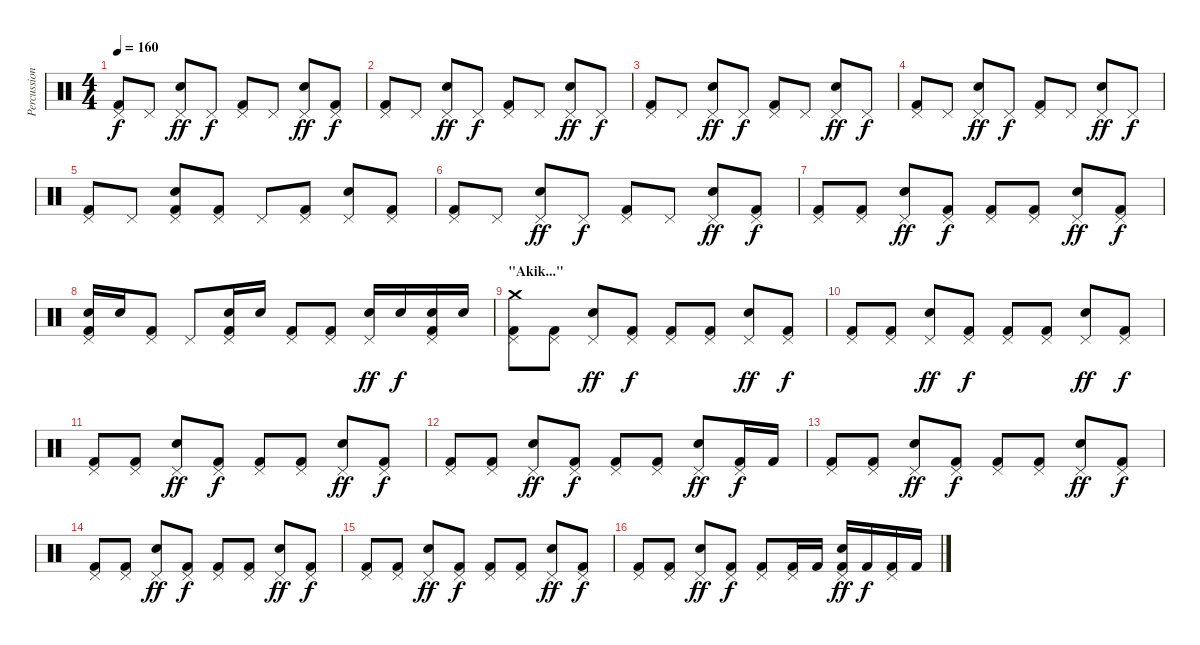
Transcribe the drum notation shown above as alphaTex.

\track ("Percussion" "Percussion") {instrument percussion}
\staff {score}
\articulation defaults
\ts (4 4)
\tempo 160
\clef neutral
\ks c
("Pedal Hi-Hat (hit)" "Kick (hit) 2").8{dy f} "Pedal Hi-Hat (hit)".8 ("Pedal Hi-Hat (hit)" "Electric Snare (hit)").8{dy ff} "Pedal Hi-Hat (hit)".8{dy f} ("Pedal Hi-Hat (hit)" "Kick (hit) 2").8 "Pedal Hi-Hat (hit)".8 ("Pedal Hi-Hat (hit)" "Electric Snare (hit)").8{dy ff} ("Pedal Hi-Hat (hit)" "Kick (hit) 2").8{dy f} |
("Pedal Hi-Hat (hit)" "Kick (hit) 2").8 "Pedal Hi-Hat (hit)".8 ("Pedal Hi-Hat (hit)" "Electric Snare (hit)").8{dy ff} "Pedal Hi-Hat (hit)".8{dy f} ("Pedal Hi-Hat (hit)" "Kick (hit) 2").8 "Pedal Hi-Hat (hit)".8 ("Pedal Hi-Hat (hit)" "Electric Snare (hit)").8{dy ff} "Pedal Hi-Hat (hit)".8{dy f} |
("Pedal Hi-Hat (hit)" "Kick (hit) 2").8 "Pedal Hi-Hat (hit)".8 ("Pedal Hi-Hat (hit)" "Electric Snare (hit)").8{dy ff} "Pedal Hi-Hat (hit)".8{dy f} ("Pedal Hi-Hat (hit)" "Kick (hit) 2").8 "Pedal Hi-Hat (hit)".8 ("Pedal Hi-Hat (hit)" "Electric Snare (hit)").8{dy ff} "Pedal Hi-Hat (hit)".8{dy f} |
("Pedal Hi-Hat (hit)" "Kick (hit) 2").8 "Pedal Hi-Hat (hit)".8 ("Pedal Hi-Hat (hit)" "Electric Snare (hit)").8{dy ff} "Pedal Hi-Hat (hit)".8{dy f} ("Pedal Hi-Hat (hit)" "Kick (hit) 2").8 "Pedal Hi-Hat (hit)".8 ("Pedal Hi-Hat (hit)" "Electric Snare (hit)").8{dy ff} "Pedal Hi-Hat (hit)".8{dy f} |
("Pedal Hi-Hat (hit)" "Kick (hit) 2").8 "Pedal Hi-Hat (hit)".8 ("Pedal Hi-Hat (hit)" "Kick (hit) 2" "Electric Snare (hit)").8 ("Pedal Hi-Hat (hit)" "Kick (hit) 2").8 "Pedal Hi-Hat (hit)".8 ("Pedal Hi-Hat (hit)" "Kick (hit) 2").8 ("Pedal Hi-Hat (hit)" "Electric Snare (hit)").8 ("Pedal Hi-Hat (hit)" "Kick (hit) 2").8 |
("Pedal Hi-Hat (hit)" "Kick (hit) 2").8 "Pedal Hi-Hat (hit)".8 ("Pedal Hi-Hat (hit)" "Electric Snare (hit)").8{dy ff} "Pedal Hi-Hat (hit)".8{dy f} ("Pedal Hi-Hat (hit)" "Kick (hit) 2").8 "Pedal Hi-Hat (hit)".8 ("Pedal Hi-Hat (hit)" "Electric Snare (hit)").8{dy ff} ("Pedal Hi-Hat (hit)" "Kick (hit) 2").8{dy f} |
("Pedal Hi-Hat (hit)" "Kick (hit) 2").8 ("Pedal Hi-Hat (hit)" "Kick (hit) 2").8 ("Pedal Hi-Hat (hit)" "Electric Snare (hit)").8{dy ff} ("Pedal Hi-Hat (hit)" "Kick (hit) 2").8{dy f} ("Pedal Hi-Hat (hit)" "Kick (hit) 2").8 ("Pedal Hi-Hat (hit)" "Kick (hit) 2").8 ("Pedal Hi-Hat (hit)" "Electric Snare (hit)").8{dy ff} ("Pedal Hi-Hat (hit)" "Kick (hit) 2").8{dy f} |
("Pedal Hi-Hat (hit)" "Kick (hit) 2" "Electric Snare (hit)").16 "Electric Snare (hit)".16 ("Pedal Hi-Hat (hit)" "Kick (hit) 2").8 "Pedal Hi-Hat (hit)".8 ("Pedal Hi-Hat (hit)" "Kick (hit) 2" "Electric Snare (hit)").16 "Electric Snare (hit)".16 ("Pedal Hi-Hat (hit)" "Kick (hit) 2").8 ("Pedal Hi-Hat (hit)" "Kick (hit) 2").8 ("Pedal Hi-Hat (hit)" "Electric Snare (hit)").16{dy ff} "Electric Snare (hit)".16{dy f} ("Pedal Hi-Hat (hit)" "Kick (hit) 2" "Electric Snare (hit)").16 "Electric Snare (hit)".16 |
\section ("" "\"Akik...\"")
("Pedal Hi-Hat (hit)" "Crash medium (hit)" "Kick (hit) 2").8 ("Pedal Hi-Hat (hit)" "Kick (hit) 2").8 ("Pedal Hi-Hat (hit)" "Electric Snare (hit)").8{dy ff} ("Pedal Hi-Hat (hit)" "Kick (hit) 2").8{dy f} ("Pedal Hi-Hat (hit)" "Kick (hit) 2").8 ("Pedal Hi-Hat (hit)" "Kick (hit) 2").8 ("Pedal Hi-Hat (hit)" "Electric Snare (hit)").8{dy ff} ("Pedal Hi-Hat (hit)" "Kick (hit) 2").8{dy f} |
("Pedal Hi-Hat (hit)" "Kick (hit) 2").8 ("Pedal Hi-Hat (hit)" "Kick (hit) 2").8 ("Pedal Hi-Hat (hit)" "Electric Snare (hit)").8{dy ff} ("Pedal Hi-Hat (hit)" "Kick (hit) 2").8{dy f} ("Pedal Hi-Hat (hit)" "Kick (hit) 2").8 ("Pedal Hi-Hat (hit)" "Kick (hit) 2").8 ("Pedal Hi-Hat (hit)" "Electric Snare (hit)").8{dy ff} ("Pedal Hi-Hat (hit)" "Kick (hit) 2").8{dy f} |
("Pedal Hi-Hat (hit)" "Kick (hit) 2").8 ("Pedal Hi-Hat (hit)" "Kick (hit) 2").8 ("Pedal Hi-Hat (hit)" "Electric Snare (hit)").8{dy ff} ("Pedal Hi-Hat (hit)" "Kick (hit) 2").8{dy f} ("Pedal Hi-Hat (hit)" "Kick (hit) 2").8 ("Pedal Hi-Hat (hit)" "Kick (hit) 2").8 ("Pedal Hi-Hat (hit)" "Electric Snare (hit)").8{dy ff} ("Pedal Hi-Hat (hit)" "Kick (hit) 2").8{dy f} |
("Pedal Hi-Hat (hit)" "Kick (hit) 2").8 ("Pedal Hi-Hat (hit)" "Kick (hit) 2").8 ("Pedal Hi-Hat (hit)" "Electric Snare (hit)").8{dy ff} ("Pedal Hi-Hat (hit)" "Kick (hit) 2").8{dy f} ("Pedal Hi-Hat (hit)" "Kick (hit) 2").8 ("Pedal Hi-Hat (hit)" "Kick (hit) 2").8 ("Pedal Hi-Hat (hit)" "Electric Snare (hit)").8{dy ff} ("Pedal Hi-Hat (hit)" "Kick (hit) 2").16{dy f} "Kick (hit) 2".16 |
("Pedal Hi-Hat (hit)" "Kick (hit) 2").8 ("Pedal Hi-Hat (hit)" "Kick (hit) 2").8 ("Pedal Hi-Hat (hit)" "Electric Snare (hit)").8{dy ff} ("Pedal Hi-Hat (hit)" "Kick (hit) 2").8{dy f} ("Pedal Hi-Hat (hit)" "Kick (hit) 2").8 ("Pedal Hi-Hat (hit)" "Kick (hit) 2").8 ("Pedal Hi-Hat (hit)" "Electric Snare (hit)").8{dy ff} ("Pedal Hi-Hat (hit)" "Kick (hit) 2").8{dy f} |
("Pedal Hi-Hat (hit)" "Kick (hit) 2").8 ("Pedal Hi-Hat (hit)" "Kick (hit) 2").8 ("Pedal Hi-Hat (hit)" "Electric Snare (hit)").8{dy ff} ("Pedal Hi-Hat (hit)" "Kick (hit) 2").8{dy f} ("Pedal Hi-Hat (hit)" "Kick (hit) 2").8 ("Pedal Hi-Hat (hit)" "Kick (hit) 2").8 ("Pedal Hi-Hat (hit)" "Electric Snare (hit)").8{dy ff} ("Pedal Hi-Hat (hit)" "Kick (hit) 2").8{dy f} |
("Pedal Hi-Hat (hit)" "Kick (hit) 2").8 ("Pedal Hi-Hat (hit)" "Kick (hit) 2").8 ("Pedal Hi-Hat (hit)" "Electric Snare (hit)").8{dy ff} ("Pedal Hi-Hat (hit)" "Kick (hit) 2").8{dy f} ("Pedal Hi-Hat (hit)" "Kick (hit) 2").8 ("Pedal Hi-Hat (hit)" "Kick (hit) 2").8 ("Pedal Hi-Hat (hit)" "Electric Snare (hit)").8{dy ff} ("Pedal Hi-Hat (hit)" "Kick (hit) 2").8{dy f} |
("Pedal Hi-Hat (hit)" "Kick (hit) 2").8 ("Pedal Hi-Hat (hit)" "Kick (hit) 2").8 ("Pedal Hi-Hat (hit)" "Electric Snare (hit)").8{dy ff} ("Pedal Hi-Hat (hit)" "Kick (hit) 2").8{dy f} ("Pedal Hi-Hat (hit)" "Kick (hit) 2").8 ("Pedal Hi-Hat (hit)" "Kick (hit) 2").16 "Kick (hit) 2".16 ("Pedal Hi-Hat (hit)" "Kick (hit) 2" "Electric Snare (hit)").16{dy ff} "Kick (hit) 2".16{dy f} ("Pedal Hi-Hat (hit)" "Kick (hit) 2").16 "Kick (hit) 2".16
